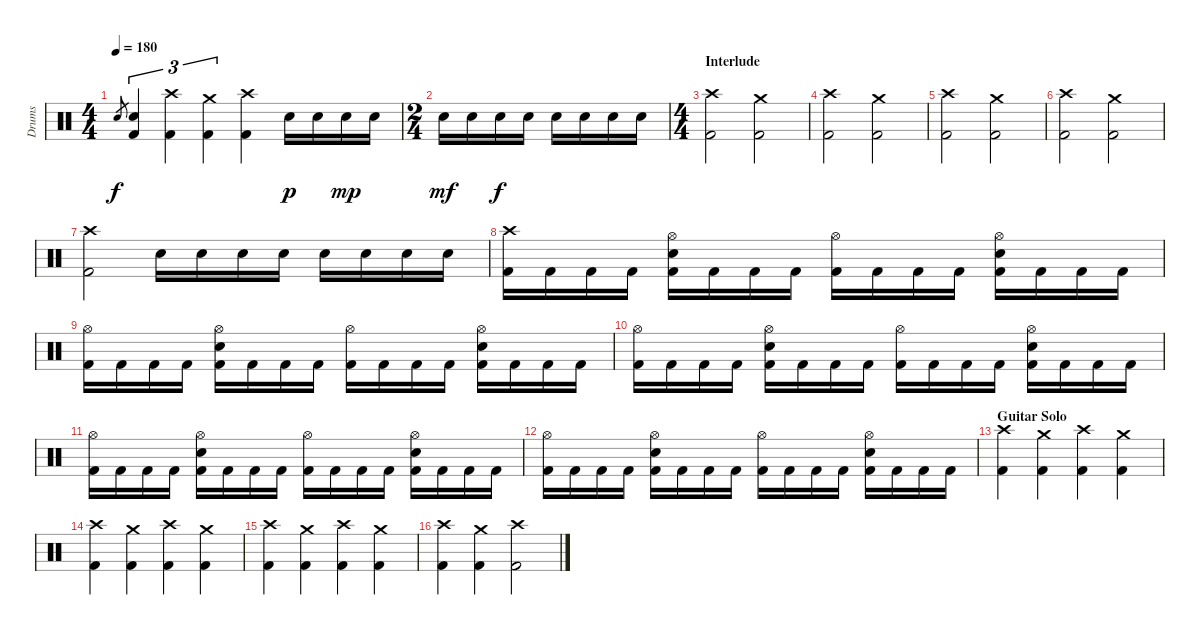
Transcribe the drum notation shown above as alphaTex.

\track ("Drums" "Drums") {instrument percussion}
\staff {score}
\articulation defaults
\ts (4 4)
\tempo 180
\clef neutral
\ks c "Electric Snare (hit)".8{gr dy f}
("Electric Snare (hit)" "Kick (hit) 2").4{tu (3 2)} ("Crash high (hit)" "Kick (hit) 2").4{tu (3 2)} ("Crash medium (hit)" "Kick (hit) 2").4{tu (3 2)} ("Crash high (hit)" "Kick (hit) 2").4 "Electric Snare (hit)".16{dy p} "Electric Snare (hit)".16 "Electric Snare (hit)".16{dy mp} "Electric Snare (hit)".16 |
\ts (2 4)
"Electric Snare (hit)".16{dy mf} "Electric Snare (hit)".16 "Electric Snare (hit)".16{dy f} "Electric Snare (hit)".16 "Electric Snare (hit)".16 "Electric Snare (hit)".16 "Electric Snare (hit)".16 "Electric Snare (hit)".16 |
\ts (4 4)
\section ("" "Interlude")
("Crash high (hit)" "Kick (hit) 2").2 ("Crash medium (hit)" "Kick (hit) 2").2 |
("Crash high (hit)" "Kick (hit) 2").2 ("Crash medium (hit)" "Kick (hit) 2").2 |
("Crash high (hit)" "Kick (hit) 2").2 ("Crash medium (hit)" "Kick (hit) 2").2 |
("Crash high (hit)" "Kick (hit) 2").2 ("Crash medium (hit)" "Kick (hit) 2").2 |
("Crash high (hit)" "Kick (hit) 2").2 "Electric Snare (hit)".16 "Electric Snare (hit)".16 "Electric Snare (hit)".16 "Electric Snare (hit)".16 "Electric Snare (hit)".16 "Electric Snare (hit)".16 "Electric Snare (hit)".16 "Electric Snare (hit)".16 |
("Crash high (hit)" "Kick (hit) 2").16 "Kick (hit) 2".16 "Kick (hit) 2".16 "Kick (hit) 2".16 ("Hi-Hat (open)" "Electric Snare (hit)" "Kick (hit) 2").16 "Kick (hit) 2".16 "Kick (hit) 2".16 "Kick (hit) 2".16 ("Hi-Hat (open)" "Kick (hit) 2").16 "Kick (hit) 2".16 "Kick (hit) 2".16 "Kick (hit) 2".16 ("Hi-Hat (open)" "Electric Snare (hit)" "Kick (hit) 2").16 "Kick (hit) 2".16 "Kick (hit) 2".16 "Kick (hit) 2".16 |
("Hi-Hat (open)" "Kick (hit) 2").16 "Kick (hit) 2".16 "Kick (hit) 2".16 "Kick (hit) 2".16 ("Hi-Hat (open)" "Electric Snare (hit)" "Kick (hit) 2").16 "Kick (hit) 2".16 "Kick (hit) 2".16 "Kick (hit) 2".16 ("Hi-Hat (open)" "Kick (hit) 2").16 "Kick (hit) 2".16 "Kick (hit) 2".16 "Kick (hit) 2".16 ("Hi-Hat (open)" "Electric Snare (hit)" "Kick (hit) 2").16 "Kick (hit) 2".16 "Kick (hit) 2".16 "Kick (hit) 2".16 |
("Hi-Hat (open)" "Kick (hit) 2").16 "Kick (hit) 2".16 "Kick (hit) 2".16 "Kick (hit) 2".16 ("Hi-Hat (open)" "Electric Snare (hit)" "Kick (hit) 2").16 "Kick (hit) 2".16 "Kick (hit) 2".16 "Kick (hit) 2".16 ("Hi-Hat (open)" "Kick (hit) 2").16 "Kick (hit) 2".16 "Kick (hit) 2".16 "Kick (hit) 2".16 ("Hi-Hat (open)" "Electric Snare (hit)" "Kick (hit) 2").16 "Kick (hit) 2".16 "Kick (hit) 2".16 "Kick (hit) 2".16 |
("Hi-Hat (open)" "Kick (hit) 2").16 "Kick (hit) 2".16 "Kick (hit) 2".16 "Kick (hit) 2".16 ("Hi-Hat (open)" "Electric Snare (hit)" "Kick (hit) 2").16 "Kick (hit) 2".16 "Kick (hit) 2".16 "Kick (hit) 2".16 ("Hi-Hat (open)" "Kick (hit) 2").16 "Kick (hit) 2".16 "Kick (hit) 2".16 "Kick (hit) 2".16 ("Hi-Hat (open)" "Electric Snare (hit)" "Kick (hit) 2").16 "Kick (hit) 2".16 "Kick (hit) 2".16 "Kick (hit) 2".16 |
("Hi-Hat (open)" "Kick (hit) 2").16 "Kick (hit) 2".16 "Kick (hit) 2".16 "Kick (hit) 2".16 ("Hi-Hat (open)" "Electric Snare (hit)" "Kick (hit) 2").16 "Kick (hit) 2".16 "Kick (hit) 2".16 "Kick (hit) 2".16 ("Hi-Hat (open)" "Kick (hit) 2").16 "Kick (hit) 2".16 "Kick (hit) 2".16 "Kick (hit) 2".16 ("Hi-Hat (open)" "Electric Snare (hit)" "Kick (hit) 2").16 "Kick (hit) 2".16 "Kick (hit) 2".16 "Kick (hit) 2".16 |
\section ("" "Guitar Solo")
("Crash high (hit)" "Kick (hit) 2").4 ("Crash medium (hit)" "Kick (hit) 2").4 ("Crash high (hit)" "Kick (hit) 2").4 ("Crash medium (hit)" "Kick (hit) 2").4 |
("Crash high (hit)" "Kick (hit) 2").4 ("Crash medium (hit)" "Kick (hit) 2").4 ("Crash high (hit)" "Kick (hit) 2").4 ("Crash medium (hit)" "Kick (hit) 2").4 |
("Crash high (hit)" "Kick (hit) 2").4 ("Crash medium (hit)" "Kick (hit) 2").4 ("Crash high (hit)" "Kick (hit) 2").4 ("Crash medium (hit)" "Kick (hit) 2").4 |
("Crash high (hit)" "Kick (hit) 2").4 ("Crash medium (hit)" "Kick (hit) 2").4 ("Crash high (hit)" "Kick (hit) 2").2
